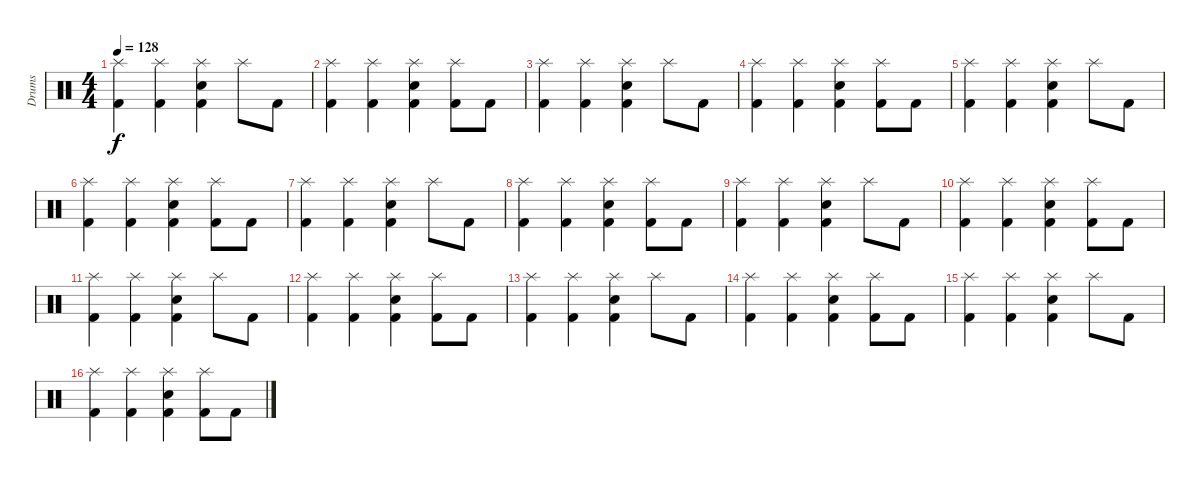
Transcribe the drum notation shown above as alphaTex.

\track ("Drums" "Drums") {instrument percussion}
\staff {score}
\articulation defaults
\ts (4 4)
\tempo 128
\clef neutral
\ks c
("Splash (hit)" "Kick (hit) 2").4{dy f} ("Splash (hit)" "Kick (hit) 2").4 ("Splash (hit)" "Electric Snare (hit)" "Kick (hit) 2").4 "Splash (hit)".8 "Kick (hit) 2".8 |
("Splash (hit)" "Kick (hit) 2").4 ("Splash (hit)" "Kick (hit) 2").4 ("Splash (hit)" "Electric Snare (hit)" "Kick (hit) 2").4 ("Splash (hit)" "Kick (hit) 2").8 "Kick (hit) 2".8 |
("Splash (hit)" "Kick (hit) 2").4 ("Splash (hit)" "Kick (hit) 2").4 ("Splash (hit)" "Electric Snare (hit)" "Kick (hit) 2").4 "Splash (hit)".8 "Kick (hit) 2".8 |
("Splash (hit)" "Kick (hit) 2").4 ("Splash (hit)" "Kick (hit) 2").4 ("Splash (hit)" "Electric Snare (hit)" "Kick (hit) 2").4 ("Splash (hit)" "Kick (hit) 2").8 "Kick (hit) 2".8 |
("Splash (hit)" "Kick (hit) 2").4 ("Splash (hit)" "Kick (hit) 2").4 ("Splash (hit)" "Electric Snare (hit)" "Kick (hit) 2").4 "Splash (hit)".8 "Kick (hit) 2".8 |
("Splash (hit)" "Kick (hit) 2").4 ("Splash (hit)" "Kick (hit) 2").4 ("Splash (hit)" "Electric Snare (hit)" "Kick (hit) 2").4 ("Splash (hit)" "Kick (hit) 2").8 "Kick (hit) 2".8 |
("Splash (hit)" "Kick (hit) 2").4 ("Splash (hit)" "Kick (hit) 2").4 ("Splash (hit)" "Electric Snare (hit)" "Kick (hit) 2").4 "Splash (hit)".8 "Kick (hit) 2".8 |
("Splash (hit)" "Kick (hit) 2").4 ("Splash (hit)" "Kick (hit) 2").4 ("Splash (hit)" "Electric Snare (hit)" "Kick (hit) 2").4 ("Splash (hit)" "Kick (hit) 2").8 "Kick (hit) 2".8 |
("Splash (hit)" "Kick (hit) 2").4 ("Splash (hit)" "Kick (hit) 2").4 ("Splash (hit)" "Electric Snare (hit)" "Kick (hit) 2").4 "Splash (hit)".8 "Kick (hit) 2".8 |
("Splash (hit)" "Kick (hit) 2").4 ("Splash (hit)" "Kick (hit) 2").4 ("Splash (hit)" "Electric Snare (hit)" "Kick (hit) 2").4 ("Splash (hit)" "Kick (hit) 2").8 "Kick (hit) 2".8 |
("Splash (hit)" "Kick (hit) 2").4 ("Splash (hit)" "Kick (hit) 2").4 ("Splash (hit)" "Electric Snare (hit)" "Kick (hit) 2").4 "Splash (hit)".8 "Kick (hit) 2".8 |
("Splash (hit)" "Kick (hit) 2").4 ("Splash (hit)" "Kick (hit) 2").4 ("Splash (hit)" "Electric Snare (hit)" "Kick (hit) 2").4 ("Splash (hit)" "Kick (hit) 2").8 "Kick (hit) 2".8 |
("Splash (hit)" "Kick (hit) 2").4 ("Splash (hit)" "Kick (hit) 2").4 ("Splash (hit)" "Electric Snare (hit)" "Kick (hit) 2").4 "Splash (hit)".8 "Kick (hit) 2".8 |
("Splash (hit)" "Kick (hit) 2").4 ("Splash (hit)" "Kick (hit) 2").4 ("Splash (hit)" "Electric Snare (hit)" "Kick (hit) 2").4 ("Splash (hit)" "Kick (hit) 2").8 "Kick (hit) 2".8 |
("Splash (hit)" "Kick (hit) 2").4 ("Splash (hit)" "Kick (hit) 2").4 ("Splash (hit)" "Electric Snare (hit)" "Kick (hit) 2").4 "Splash (hit)".8 "Kick (hit) 2".8 |
("Splash (hit)" "Kick (hit) 2").4 ("Splash (hit)" "Kick (hit) 2").4 ("Splash (hit)" "Electric Snare (hit)" "Kick (hit) 2").4 ("Splash (hit)" "Kick (hit) 2").8 "Kick (hit) 2".8
